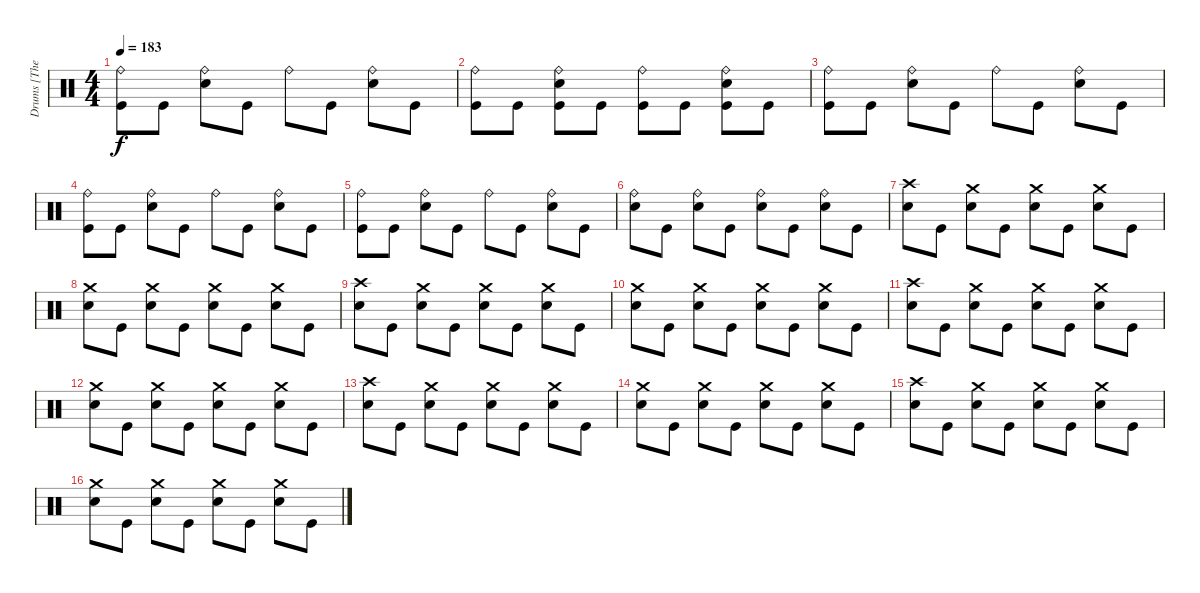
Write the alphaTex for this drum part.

\track ("Drums [The Rev]" "Drums [The") {instrument percussion}
\staff {score}
\articulation defaults
\ts (4 4)
\tempo 183
\clef neutral
\ks c
("Ride (bell)" "Kick (hit)").8{dy f} "Kick (hit)".8 ("Ride (bell)" "Snare (hit) 2").8 "Kick (hit)".8 "Ride (bell)".8 "Kick (hit)".8 ("Ride (bell)" "Snare (hit) 2").8 "Kick (hit)".8 |
("Ride (bell)" "Kick (hit)").8 "Kick (hit)".8 ("Ride (bell)" "Snare (hit) 2" "Kick (hit)").8 "Kick (hit)".8 ("Ride (bell)" "Kick (hit)").8 "Kick (hit)".8 ("Ride (bell)" "Snare (hit) 2" "Kick (hit)").8 "Kick (hit)".8 |
("Ride (bell)" "Kick (hit)").8 "Kick (hit)".8 ("Ride (bell)" "Snare (hit) 2").8 "Kick (hit)".8 "Ride (bell)".8 "Kick (hit)".8 ("Ride (bell)" "Snare (hit) 2").8 "Kick (hit)".8 |
("Ride (bell)" "Kick (hit)").8 "Kick (hit)".8 ("Ride (bell)" "Snare (hit) 2").8 "Kick (hit)".8 "Ride (bell)".8 "Kick (hit)".8 ("Ride (bell)" "Snare (hit) 2").8 "Kick (hit)".8 |
("Ride (bell)" "Kick (hit)").8 "Kick (hit)".8 ("Ride (bell)" "Snare (hit) 2").8 "Kick (hit)".8 "Ride (bell)".8 "Kick (hit)".8 ("Ride (bell)" "Snare (hit) 2").8 "Kick (hit)".8 |
("Ride (bell)" "Snare (hit) 2").8 "Kick (hit)".8 ("Ride (bell)" "Snare (hit) 2").8 "Kick (hit)".8 ("Ride (bell)" "Snare (hit) 2").8 "Kick (hit)".8 ("Ride (bell)" "Snare (hit) 2").8 "Kick (hit)".8 |
("Crash high (hit)" "Snare (hit) 2").8 "Kick (hit)".8 ("Crash medium (hit)" "Snare (hit) 2").8 "Kick (hit)".8 ("Crash medium (hit)" "Snare (hit) 2").8 "Kick (hit)".8 ("Crash medium (hit)" "Snare (hit) 2").8 "Kick (hit)".8 |
("Crash medium (hit)" "Snare (hit) 2").8 "Kick (hit)".8 ("Crash medium (hit)" "Snare (hit) 2").8 "Kick (hit)".8 ("Crash medium (hit)" "Snare (hit) 2").8 "Kick (hit)".8 ("Crash medium (hit)" "Snare (hit) 2").8 "Kick (hit)".8 |
("Crash high (hit)" "Snare (hit) 2").8 "Kick (hit)".8 ("Crash medium (hit)" "Snare (hit) 2").8 "Kick (hit)".8 ("Crash medium (hit)" "Snare (hit) 2").8 "Kick (hit)".8 ("Crash medium (hit)" "Snare (hit) 2").8 "Kick (hit)".8 |
("Crash medium (hit)" "Snare (hit) 2").8 "Kick (hit)".8 ("Crash medium (hit)" "Snare (hit) 2").8 "Kick (hit)".8 ("Crash medium (hit)" "Snare (hit) 2").8 "Kick (hit)".8 ("Crash medium (hit)" "Snare (hit) 2").8 "Kick (hit)".8 |
("Crash high (hit)" "Snare (hit) 2").8 "Kick (hit)".8 ("Crash medium (hit)" "Snare (hit) 2").8 "Kick (hit)".8 ("Crash medium (hit)" "Snare (hit) 2").8 "Kick (hit)".8 ("Crash medium (hit)" "Snare (hit) 2").8 "Kick (hit)".8 |
("Crash medium (hit)" "Snare (hit) 2").8 "Kick (hit)".8 ("Crash medium (hit)" "Snare (hit) 2").8 "Kick (hit)".8 ("Crash medium (hit)" "Snare (hit) 2").8 "Kick (hit)".8 ("Crash medium (hit)" "Snare (hit) 2").8 "Kick (hit)".8 |
("Crash high (hit)" "Snare (hit) 2").8 "Kick (hit)".8 ("Crash medium (hit)" "Snare (hit) 2").8 "Kick (hit)".8 ("Crash medium (hit)" "Snare (hit) 2").8 "Kick (hit)".8 ("Crash medium (hit)" "Snare (hit) 2").8 "Kick (hit)".8 |
("Crash medium (hit)" "Snare (hit) 2").8 "Kick (hit)".8 ("Crash medium (hit)" "Snare (hit) 2").8 "Kick (hit)".8 ("Crash medium (hit)" "Snare (hit) 2").8 "Kick (hit)".8 ("Crash medium (hit)" "Snare (hit) 2").8 "Kick (hit)".8 |
("Crash high (hit)" "Snare (hit) 2").8 "Kick (hit)".8 ("Crash medium (hit)" "Snare (hit) 2").8 "Kick (hit)".8 ("Crash medium (hit)" "Snare (hit) 2").8 "Kick (hit)".8 ("Crash medium (hit)" "Snare (hit) 2").8 "Kick (hit)".8 |
("Crash medium (hit)" "Snare (hit) 2").8 "Kick (hit)".8 ("Crash medium (hit)" "Snare (hit) 2").8 "Kick (hit)".8 ("Crash medium (hit)" "Snare (hit) 2").8 "Kick (hit)".8 ("Crash medium (hit)" "Snare (hit) 2").8 "Kick (hit)".8
